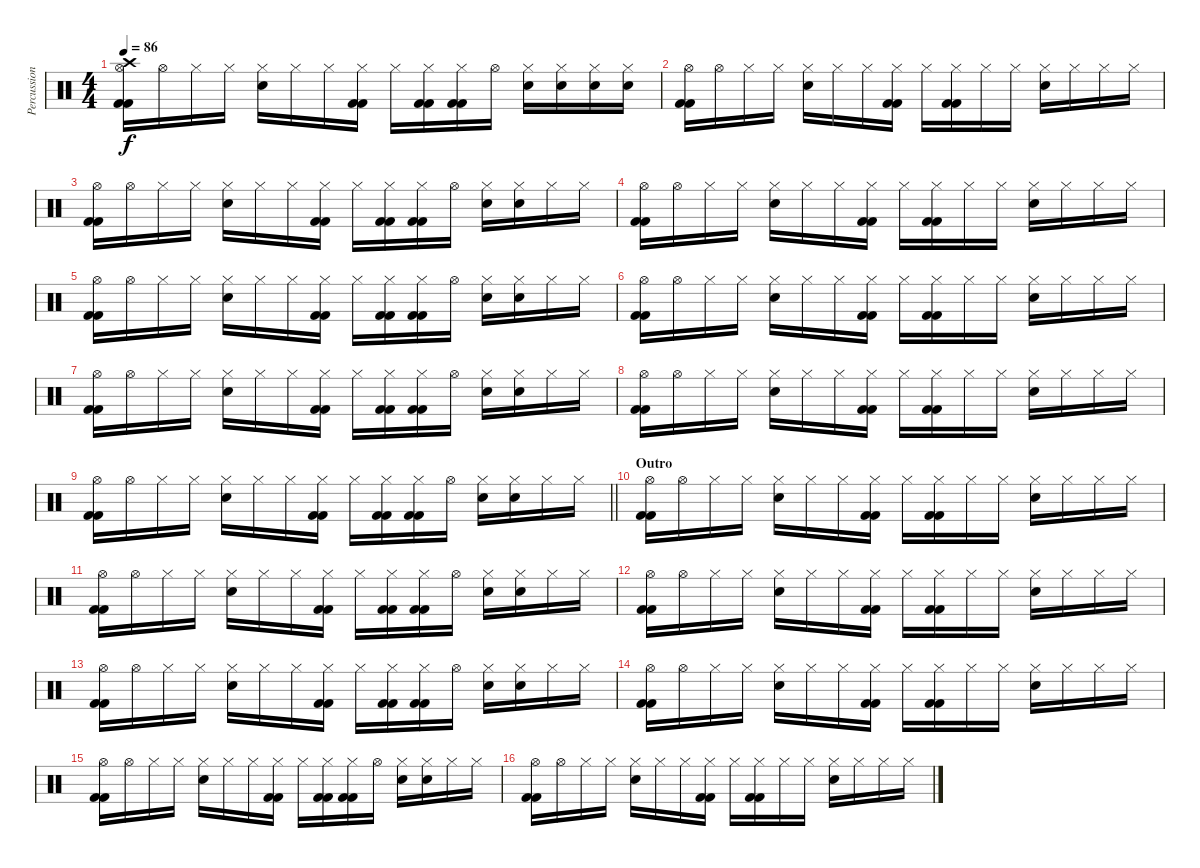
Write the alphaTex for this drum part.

\track ("Percussion" "Percussion") {instrument percussion}
\staff {score}
\articulation defaults
\ts (4 4)
\tempo 86
\clef neutral
\ks c
("Hi-Hat (open)" "Crash high (hit)" "Kick (hit) 2" "Kick (hit) 2").16{dy f} "Hi-Hat (open)".16 "Hi-Hat (closed)".16 "Hi-Hat (closed)".16 ("Hi-Hat (closed)" "Electric Snare (hit)").16 "Hi-Hat (closed)".16 "Hi-Hat (closed)".16 ("Hi-Hat (closed)" "Kick (hit) 2" "Kick (hit) 2").16 "Hi-Hat (closed)".16 ("Hi-Hat (closed)" "Kick (hit) 2" "Kick (hit) 2").16 ("Hi-Hat (closed)" "Kick (hit) 2" "Kick (hit) 2").16 "Hi-Hat (open)".16 ("Hi-Hat (closed)" "Electric Snare (hit)").16 ("Hi-Hat (closed)" "Electric Snare (hit)").16 ("Hi-Hat (closed)" "Electric Snare (hit)").16 ("Hi-Hat (closed)" "Electric Snare (hit)").16 |
("Hi-Hat (open)" "Kick (hit) 2" "Kick (hit) 2").16 "Hi-Hat (open)".16 "Hi-Hat (closed)".16 "Hi-Hat (closed)".16 ("Hi-Hat (closed)" "Electric Snare (hit)").16 "Hi-Hat (closed)".16 "Hi-Hat (closed)".16 ("Hi-Hat (closed)" "Kick (hit) 2" "Kick (hit) 2").16 "Hi-Hat (closed)".16 ("Hi-Hat (closed)" "Kick (hit) 2" "Kick (hit) 2").16 "Hi-Hat (closed)".16 "Hi-Hat (closed)".16 ("Hi-Hat (closed)" "Electric Snare (hit)").16 "Hi-Hat (closed)".16 "Hi-Hat (closed)".16 "Hi-Hat (closed)".16 |
("Hi-Hat (open)" "Kick (hit) 2" "Kick (hit) 2").16 "Hi-Hat (open)".16 "Hi-Hat (closed)".16 "Hi-Hat (closed)".16 ("Hi-Hat (closed)" "Electric Snare (hit)").16 "Hi-Hat (closed)".16 "Hi-Hat (closed)".16 ("Hi-Hat (closed)" "Kick (hit) 2" "Kick (hit) 2").16 "Hi-Hat (closed)".16 ("Hi-Hat (closed)" "Kick (hit) 2" "Kick (hit) 2").16 ("Hi-Hat (closed)" "Kick (hit) 2" "Kick (hit) 2").16 "Hi-Hat (open)".16 ("Hi-Hat (closed)" "Electric Snare (hit)").16 ("Hi-Hat (closed)" "Electric Snare (hit)").16 "Hi-Hat (closed)".16 "Hi-Hat (closed)".16 |
("Hi-Hat (open)" "Kick (hit) 2" "Kick (hit) 2").16 "Hi-Hat (open)".16 "Hi-Hat (closed)".16 "Hi-Hat (closed)".16 ("Hi-Hat (closed)" "Electric Snare (hit)").16 "Hi-Hat (closed)".16 "Hi-Hat (closed)".16 ("Hi-Hat (closed)" "Kick (hit) 2" "Kick (hit) 2").16 "Hi-Hat (closed)".16 ("Hi-Hat (closed)" "Kick (hit) 2" "Kick (hit) 2").16 "Hi-Hat (closed)".16 "Hi-Hat (closed)".16 ("Hi-Hat (closed)" "Electric Snare (hit)").16 "Hi-Hat (closed)".16 "Hi-Hat (closed)".16 "Hi-Hat (closed)".16 |
("Hi-Hat (open)" "Kick (hit) 2" "Kick (hit) 2").16 "Hi-Hat (open)".16 "Hi-Hat (closed)".16 "Hi-Hat (closed)".16 ("Hi-Hat (closed)" "Electric Snare (hit)").16 "Hi-Hat (closed)".16 "Hi-Hat (closed)".16 ("Hi-Hat (closed)" "Kick (hit) 2" "Kick (hit) 2").16 "Hi-Hat (closed)".16 ("Hi-Hat (closed)" "Kick (hit) 2" "Kick (hit) 2").16 ("Hi-Hat (closed)" "Kick (hit) 2" "Kick (hit) 2").16 "Hi-Hat (open)".16 ("Hi-Hat (closed)" "Electric Snare (hit)").16 ("Hi-Hat (closed)" "Electric Snare (hit)").16 "Hi-Hat (closed)".16 "Hi-Hat (closed)".16 |
("Hi-Hat (open)" "Kick (hit) 2" "Kick (hit) 2").16 "Hi-Hat (open)".16 "Hi-Hat (closed)".16 "Hi-Hat (closed)".16 ("Hi-Hat (closed)" "Electric Snare (hit)").16 "Hi-Hat (closed)".16 "Hi-Hat (closed)".16 ("Hi-Hat (closed)" "Kick (hit) 2" "Kick (hit) 2").16 "Hi-Hat (closed)".16 ("Hi-Hat (closed)" "Kick (hit) 2" "Kick (hit) 2").16 "Hi-Hat (closed)".16 "Hi-Hat (closed)".16 ("Hi-Hat (closed)" "Electric Snare (hit)").16 "Hi-Hat (closed)".16 "Hi-Hat (closed)".16 "Hi-Hat (closed)".16 |
("Hi-Hat (open)" "Kick (hit) 2" "Kick (hit) 2").16 "Hi-Hat (open)".16 "Hi-Hat (closed)".16 "Hi-Hat (closed)".16 ("Hi-Hat (closed)" "Electric Snare (hit)").16 "Hi-Hat (closed)".16 "Hi-Hat (closed)".16 ("Hi-Hat (closed)" "Kick (hit) 2" "Kick (hit) 2").16 "Hi-Hat (closed)".16 ("Hi-Hat (closed)" "Kick (hit) 2" "Kick (hit) 2").16 ("Hi-Hat (closed)" "Kick (hit) 2" "Kick (hit) 2").16 "Hi-Hat (open)".16 ("Hi-Hat (closed)" "Electric Snare (hit)").16 ("Hi-Hat (closed)" "Electric Snare (hit)").16 "Hi-Hat (closed)".16 "Hi-Hat (closed)".16 |
("Hi-Hat (open)" "Kick (hit) 2" "Kick (hit) 2").16 "Hi-Hat (open)".16 "Hi-Hat (closed)".16 "Hi-Hat (closed)".16 ("Hi-Hat (closed)" "Electric Snare (hit)").16 "Hi-Hat (closed)".16 "Hi-Hat (closed)".16 ("Hi-Hat (closed)" "Kick (hit) 2" "Kick (hit) 2").16 "Hi-Hat (closed)".16 ("Hi-Hat (closed)" "Kick (hit) 2" "Kick (hit) 2").16 "Hi-Hat (closed)".16 "Hi-Hat (closed)".16 ("Hi-Hat (closed)" "Electric Snare (hit)").16 "Hi-Hat (closed)".16 "Hi-Hat (closed)".16 "Hi-Hat (closed)".16 |
\barLineRight lightlight
("Hi-Hat (open)" "Kick (hit) 2" "Kick (hit) 2").16 "Hi-Hat (open)".16 "Hi-Hat (closed)".16 "Hi-Hat (closed)".16 ("Hi-Hat (closed)" "Electric Snare (hit)").16 "Hi-Hat (closed)".16 "Hi-Hat (closed)".16 ("Hi-Hat (closed)" "Kick (hit) 2" "Kick (hit) 2").16 "Hi-Hat (closed)".16 ("Hi-Hat (closed)" "Kick (hit) 2" "Kick (hit) 2").16 ("Hi-Hat (closed)" "Kick (hit) 2" "Kick (hit) 2").16 "Hi-Hat (open)".16 ("Hi-Hat (closed)" "Electric Snare (hit)").16 ("Hi-Hat (closed)" "Electric Snare (hit)").16 "Hi-Hat (closed)".16 "Hi-Hat (closed)".16 |
\section ("" "Outro")
("Hi-Hat (open)" "Kick (hit) 2" "Kick (hit) 2").16 "Hi-Hat (open)".16 "Hi-Hat (closed)".16 "Hi-Hat (closed)".16 ("Hi-Hat (closed)" "Electric Snare (hit)").16 "Hi-Hat (closed)".16 "Hi-Hat (closed)".16 ("Hi-Hat (closed)" "Kick (hit) 2" "Kick (hit) 2").16 "Hi-Hat (closed)".16 ("Hi-Hat (closed)" "Kick (hit) 2" "Kick (hit) 2").16 "Hi-Hat (closed)".16 "Hi-Hat (closed)".16 ("Hi-Hat (closed)" "Electric Snare (hit)").16 "Hi-Hat (closed)".16 "Hi-Hat (closed)".16 "Hi-Hat (closed)".16 |
("Hi-Hat (open)" "Kick (hit) 2" "Kick (hit) 2").16 "Hi-Hat (open)".16 "Hi-Hat (closed)".16 "Hi-Hat (closed)".16 ("Hi-Hat (closed)" "Electric Snare (hit)").16 "Hi-Hat (closed)".16 "Hi-Hat (closed)".16 ("Hi-Hat (closed)" "Kick (hit) 2" "Kick (hit) 2").16 "Hi-Hat (closed)".16 ("Hi-Hat (closed)" "Kick (hit) 2" "Kick (hit) 2").16 ("Hi-Hat (closed)" "Kick (hit) 2" "Kick (hit) 2").16 "Hi-Hat (open)".16 ("Hi-Hat (closed)" "Electric Snare (hit)").16 ("Hi-Hat (closed)" "Electric Snare (hit)").16 "Hi-Hat (closed)".16 "Hi-Hat (closed)".16 |
("Hi-Hat (open)" "Kick (hit) 2" "Kick (hit) 2").16 "Hi-Hat (open)".16 "Hi-Hat (closed)".16 "Hi-Hat (closed)".16 ("Hi-Hat (closed)" "Electric Snare (hit)").16 "Hi-Hat (closed)".16 "Hi-Hat (closed)".16 ("Hi-Hat (closed)" "Kick (hit) 2" "Kick (hit) 2").16 "Hi-Hat (closed)".16 ("Hi-Hat (closed)" "Kick (hit) 2" "Kick (hit) 2").16 "Hi-Hat (closed)".16 "Hi-Hat (closed)".16 ("Hi-Hat (closed)" "Electric Snare (hit)").16 "Hi-Hat (closed)".16 "Hi-Hat (closed)".16 "Hi-Hat (closed)".16 |
("Hi-Hat (open)" "Kick (hit) 2" "Kick (hit) 2").16 "Hi-Hat (open)".16 "Hi-Hat (closed)".16 "Hi-Hat (closed)".16 ("Hi-Hat (closed)" "Electric Snare (hit)").16 "Hi-Hat (closed)".16 "Hi-Hat (closed)".16 ("Hi-Hat (closed)" "Kick (hit) 2" "Kick (hit) 2").16 "Hi-Hat (closed)".16 ("Hi-Hat (closed)" "Kick (hit) 2" "Kick (hit) 2").16 ("Hi-Hat (closed)" "Kick (hit) 2" "Kick (hit) 2").16 "Hi-Hat (open)".16 ("Hi-Hat (closed)" "Electric Snare (hit)").16 ("Hi-Hat (closed)" "Electric Snare (hit)").16 "Hi-Hat (closed)".16 "Hi-Hat (closed)".16 |
("Hi-Hat (open)" "Kick (hit) 2" "Kick (hit) 2").16 "Hi-Hat (open)".16 "Hi-Hat (closed)".16 "Hi-Hat (closed)".16 ("Hi-Hat (closed)" "Electric Snare (hit)").16 "Hi-Hat (closed)".16 "Hi-Hat (closed)".16 ("Hi-Hat (closed)" "Kick (hit) 2" "Kick (hit) 2").16 "Hi-Hat (closed)".16 ("Hi-Hat (closed)" "Kick (hit) 2" "Kick (hit) 2").16 "Hi-Hat (closed)".16 "Hi-Hat (closed)".16 ("Hi-Hat (closed)" "Electric Snare (hit)").16 "Hi-Hat (closed)".16 "Hi-Hat (closed)".16 "Hi-Hat (closed)".16 |
("Hi-Hat (open)" "Kick (hit) 2" "Kick (hit) 2").16 "Hi-Hat (open)".16 "Hi-Hat (closed)".16 "Hi-Hat (closed)".16 ("Hi-Hat (closed)" "Electric Snare (hit)").16 "Hi-Hat (closed)".16 "Hi-Hat (closed)".16 ("Hi-Hat (closed)" "Kick (hit) 2" "Kick (hit) 2").16 "Hi-Hat (closed)".16 ("Hi-Hat (closed)" "Kick (hit) 2" "Kick (hit) 2").16 ("Hi-Hat (closed)" "Kick (hit) 2" "Kick (hit) 2").16 "Hi-Hat (open)".16 ("Hi-Hat (closed)" "Electric Snare (hit)").16 ("Hi-Hat (closed)" "Electric Snare (hit)").16 "Hi-Hat (closed)".16 "Hi-Hat (closed)".16 |
("Hi-Hat (open)" "Kick (hit) 2" "Kick (hit) 2").16 "Hi-Hat (open)".16 "Hi-Hat (closed)".16 "Hi-Hat (closed)".16 ("Hi-Hat (closed)" "Electric Snare (hit)").16 "Hi-Hat (closed)".16 "Hi-Hat (closed)".16 ("Hi-Hat (closed)" "Kick (hit) 2" "Kick (hit) 2").16 "Hi-Hat (closed)".16 ("Hi-Hat (closed)" "Kick (hit) 2" "Kick (hit) 2").16 "Hi-Hat (closed)".16 "Hi-Hat (closed)".16 ("Hi-Hat (closed)" "Electric Snare (hit)").16 "Hi-Hat (closed)".16 "Hi-Hat (closed)".16 "Hi-Hat (closed)".16
